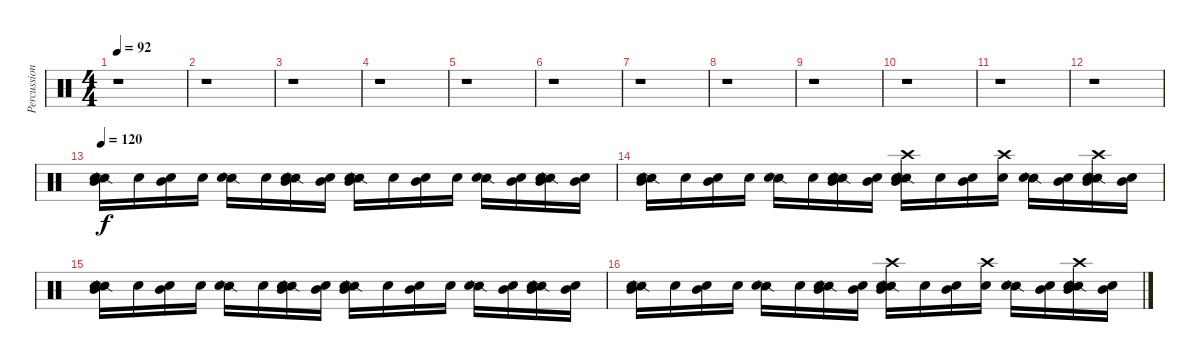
\track ("Percussion" "Percussion") {instrument percussion}
\staff {score}
\articulation defaults
\ts (4 4)
\tempo 92
\clef neutral
\ks c
r.1{dy f} |
r.1 |
r.1 |
r.1 |
r.1 |
r.1 |
r.1 |
r.1 |
r.1 |
r.1 |
r.1 |
r.1 |
\tempo 120
("Mid Tom (hit)" "Snare (side stick) 2" "Snare (hit) 2").16{volume 16} "Snare (hit) 2".16 ("Mid Tom (hit)" "Snare (hit) 2").16 "Snare (hit) 2".16 ("Snare (side stick) 2" "Snare (hit) 2").16 "Snare (hit) 2".16 ("Mid Tom (hit)" "Snare (side stick) 2" "Snare (hit) 2").16 ("Mid Tom (hit)" "Snare (hit) 2").16 ("Mid Tom (hit)" "Snare (side stick) 2" "Snare (hit) 2").16 "Snare (hit) 2".16 ("Mid Tom (hit)" "Snare (hit) 2").16 "Snare (hit) 2".16 ("Snare (side stick) 2" "Snare (hit) 2").16 ("Mid Tom (hit)" "Snare (hit) 2").16 ("Mid Tom (hit)" "Snare (side stick) 2" "Snare (hit) 2").16 ("Mid Tom (hit)" "Snare (hit) 2").16 |
("Mid Tom (hit)" "Snare (side stick) 2" "Snare (hit) 2").16 "Snare (hit) 2".16 ("Mid Tom (hit)" "Snare (hit) 2").16 "Snare (hit) 2".16 ("Snare (side stick) 2" "Snare (hit) 2").16 "Snare (hit) 2".16 ("Mid Tom (hit)" "Snare (side stick) 2" "Snare (hit) 2").16 ("Mid Tom (hit)" "Snare (hit) 2").16 ("Mid Tom (hit)" "Crash high (hit)" "Snare (side stick) 2" "Snare (hit) 2").16 "Snare (hit) 2".16 ("Mid Tom (hit)" "Snare (hit) 2").16 ("Crash high (hit)" "Snare (hit) 2").16 ("Snare (side stick) 2" "Snare (hit) 2").16 ("Mid Tom (hit)" "Snare (hit) 2").16 ("Mid Tom (hit)" "Crash high (hit)" "Snare (side stick) 2" "Snare (hit) 2").16 ("Mid Tom (hit)" "Snare (hit) 2").16 |
("Mid Tom (hit)" "Snare (side stick) 2" "Snare (hit) 2").16 "Snare (hit) 2".16 ("Mid Tom (hit)" "Snare (hit) 2").16 "Snare (hit) 2".16 ("Snare (side stick) 2" "Snare (hit) 2").16 "Snare (hit) 2".16 ("Mid Tom (hit)" "Snare (side stick) 2" "Snare (hit) 2").16 ("Mid Tom (hit)" "Snare (hit) 2").16 ("Mid Tom (hit)" "Snare (side stick) 2" "Snare (hit) 2").16 "Snare (hit) 2".16 ("Mid Tom (hit)" "Snare (hit) 2").16 "Snare (hit) 2".16 ("Snare (side stick) 2" "Snare (hit) 2").16 ("Mid Tom (hit)" "Snare (hit) 2").16 ("Mid Tom (hit)" "Snare (side stick) 2" "Snare (hit) 2").16 ("Mid Tom (hit)" "Snare (hit) 2").16 |
("Mid Tom (hit)" "Snare (side stick) 2" "Snare (hit) 2").16 "Snare (hit) 2".16 ("Mid Tom (hit)" "Snare (hit) 2").16 "Snare (hit) 2".16 ("Snare (side stick) 2" "Snare (hit) 2").16 "Snare (hit) 2".16 ("Mid Tom (hit)" "Snare (side stick) 2" "Snare (hit) 2").16 ("Mid Tom (hit)" "Snare (hit) 2").16 ("Mid Tom (hit)" "Crash high (hit)" "Snare (side stick) 2" "Snare (hit) 2").16 "Snare (hit) 2".16 ("Mid Tom (hit)" "Snare (hit) 2").16 ("Crash high (hit)" "Snare (hit) 2").16 ("Snare (side stick) 2" "Snare (hit) 2").16 ("Mid Tom (hit)" "Snare (hit) 2").16 ("Mid Tom (hit)" "Crash high (hit)" "Snare (side stick) 2" "Snare (hit) 2").16 ("Mid Tom (hit)" "Snare (hit) 2").16
